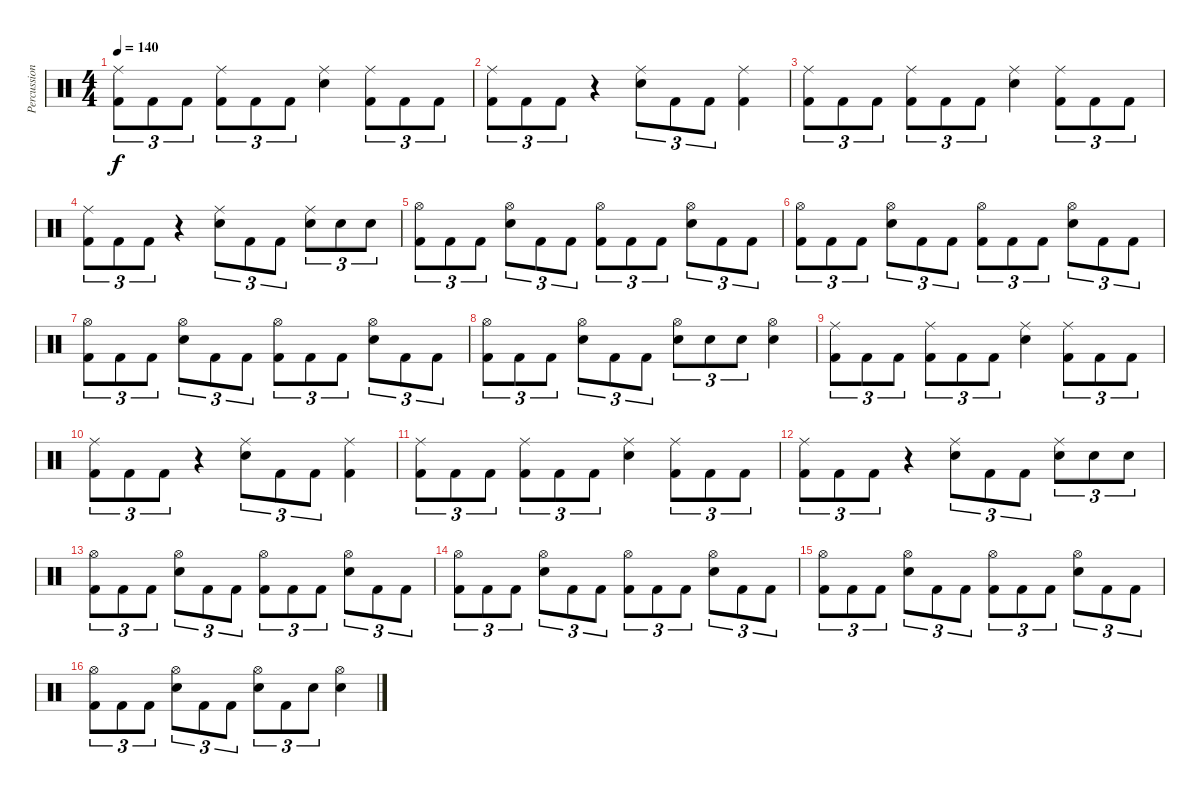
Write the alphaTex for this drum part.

\track ("Percussion" "Percussion") {instrument percussion}
\staff {score}
\articulation defaults
\ts (4 4)
\tempo 140
\clef neutral
\ks c
("Ride (middle)" "Kick (hit) 2").8{tu (3 2) dy f} "Kick (hit) 2".8{tu (3 2)} "Kick (hit) 2".8{tu (3 2)} ("Ride (middle)" "Kick (hit) 2").8{tu (3 2)} "Kick (hit) 2".8{tu (3 2)} "Kick (hit) 2".8{tu (3 2)} ("Ride (middle)" "Electric Snare (hit)").4 ("Ride (middle)" "Kick (hit) 2").8{tu (3 2)} "Kick (hit) 2".8{tu (3 2)} "Kick (hit) 2".8{tu (3 2)} |
("Ride (middle)" "Kick (hit) 2").8{tu (3 2)} "Kick (hit) 2".8{tu (3 2)} "Kick (hit) 2".8{tu (3 2)} r.4 ("Ride (middle)" "Electric Snare (hit)").8{tu (3 2)} "Kick (hit) 2".8{tu (3 2)} "Kick (hit) 2".8{tu (3 2)} ("Ride (middle)" "Kick (hit) 2").4 |
("Ride (middle)" "Kick (hit) 2").8{tu (3 2)} "Kick (hit) 2".8{tu (3 2)} "Kick (hit) 2".8{tu (3 2)} ("Ride (middle)" "Kick (hit) 2").8{tu (3 2)} "Kick (hit) 2".8{tu (3 2)} "Kick (hit) 2".8{tu (3 2)} ("Ride (middle)" "Electric Snare (hit)").4 ("Ride (middle)" "Kick (hit) 2").8{tu (3 2)} "Kick (hit) 2".8{tu (3 2)} "Kick (hit) 2".8{tu (3 2)} |
("Ride (middle)" "Kick (hit) 2").8{tu (3 2)} "Kick (hit) 2".8{tu (3 2)} "Kick (hit) 2".8{tu (3 2)} r.4 ("Ride (middle)" "Electric Snare (hit)").8{tu (3 2)} "Kick (hit) 2".8{tu (3 2)} "Kick (hit) 2".8{tu (3 2)} ("Ride (middle)" "Electric Snare (hit)").8{tu (3 2)} "Electric Snare (hit)".8{tu (3 2)} "Electric Snare (hit)".8{tu (3 2)} |
("Hi-Hat (open)" "Kick (hit) 2").8{tu (3 2)} "Kick (hit) 2".8{tu (3 2)} "Kick (hit) 2".8{tu (3 2)} ("Hi-Hat (open)" "Electric Snare (hit)").8{tu (3 2)} "Kick (hit) 2".8{tu (3 2)} "Kick (hit) 2".8{tu (3 2)} ("Hi-Hat (open)" "Kick (hit) 2").8{tu (3 2)} "Kick (hit) 2".8{tu (3 2)} "Kick (hit) 2".8{tu (3 2)} ("Hi-Hat (open)" "Electric Snare (hit)").8{tu (3 2)} "Kick (hit) 2".8{tu (3 2)} "Kick (hit) 2".8{tu (3 2)} |
("Hi-Hat (open)" "Kick (hit) 2").8{tu (3 2)} "Kick (hit) 2".8{tu (3 2)} "Kick (hit) 2".8{tu (3 2)} ("Hi-Hat (open)" "Electric Snare (hit)").8{tu (3 2)} "Kick (hit) 2".8{tu (3 2)} "Kick (hit) 2".8{tu (3 2)} ("Hi-Hat (open)" "Kick (hit) 2").8{tu (3 2)} "Kick (hit) 2".8{tu (3 2)} "Kick (hit) 2".8{tu (3 2)} ("Hi-Hat (open)" "Electric Snare (hit)").8{tu (3 2)} "Kick (hit) 2".8{tu (3 2)} "Kick (hit) 2".8{tu (3 2)} |
("Hi-Hat (open)" "Kick (hit) 2").8{tu (3 2)} "Kick (hit) 2".8{tu (3 2)} "Kick (hit) 2".8{tu (3 2)} ("Hi-Hat (open)" "Electric Snare (hit)").8{tu (3 2)} "Kick (hit) 2".8{tu (3 2)} "Kick (hit) 2".8{tu (3 2)} ("Hi-Hat (open)" "Kick (hit) 2").8{tu (3 2)} "Kick (hit) 2".8{tu (3 2)} "Kick (hit) 2".8{tu (3 2)} ("Hi-Hat (open)" "Electric Snare (hit)").8{tu (3 2)} "Kick (hit) 2".8{tu (3 2)} "Kick (hit) 2".8{tu (3 2)} |
("Hi-Hat (open)" "Kick (hit) 2").8{tu (3 2)} "Kick (hit) 2".8{tu (3 2)} "Kick (hit) 2".8{tu (3 2)} ("Hi-Hat (open)" "Electric Snare (hit)").8{tu (3 2)} "Kick (hit) 2".8{tu (3 2)} "Kick (hit) 2".8{tu (3 2)} ("Hi-Hat (open)" "Electric Snare (hit)").8{tu (3 2)} "Electric Snare (hit)".8{tu (3 2)} "Electric Snare (hit)".8{tu (3 2)} ("Hi-Hat (open)" "Electric Snare (hit)").4 |
("Ride (middle)" "Kick (hit) 2").8{tu (3 2)} "Kick (hit) 2".8{tu (3 2)} "Kick (hit) 2".8{tu (3 2)} ("Ride (middle)" "Kick (hit) 2").8{tu (3 2)} "Kick (hit) 2".8{tu (3 2)} "Kick (hit) 2".8{tu (3 2)} ("Ride (middle)" "Electric Snare (hit)").4 ("Ride (middle)" "Kick (hit) 2").8{tu (3 2)} "Kick (hit) 2".8{tu (3 2)} "Kick (hit) 2".8{tu (3 2)} |
("Ride (middle)" "Kick (hit) 2").8{tu (3 2)} "Kick (hit) 2".8{tu (3 2)} "Kick (hit) 2".8{tu (3 2)} r.4 ("Ride (middle)" "Electric Snare (hit)").8{tu (3 2)} "Kick (hit) 2".8{tu (3 2)} "Kick (hit) 2".8{tu (3 2)} ("Ride (middle)" "Kick (hit) 2").4 |
("Ride (middle)" "Kick (hit) 2").8{tu (3 2)} "Kick (hit) 2".8{tu (3 2)} "Kick (hit) 2".8{tu (3 2)} ("Ride (middle)" "Kick (hit) 2").8{tu (3 2)} "Kick (hit) 2".8{tu (3 2)} "Kick (hit) 2".8{tu (3 2)} ("Ride (middle)" "Electric Snare (hit)").4 ("Ride (middle)" "Kick (hit) 2").8{tu (3 2)} "Kick (hit) 2".8{tu (3 2)} "Kick (hit) 2".8{tu (3 2)} |
("Ride (middle)" "Kick (hit) 2").8{tu (3 2)} "Kick (hit) 2".8{tu (3 2)} "Kick (hit) 2".8{tu (3 2)} r.4 ("Ride (middle)" "Electric Snare (hit)").8{tu (3 2)} "Kick (hit) 2".8{tu (3 2)} "Kick (hit) 2".8{tu (3 2)} ("Ride (middle)" "Electric Snare (hit)").8{tu (3 2)} "Electric Snare (hit)".8{tu (3 2)} "Electric Snare (hit)".8{tu (3 2)} |
("Hi-Hat (open)" "Kick (hit) 2").8{tu (3 2)} "Kick (hit) 2".8{tu (3 2)} "Kick (hit) 2".8{tu (3 2)} ("Hi-Hat (open)" "Electric Snare (hit)").8{tu (3 2)} "Kick (hit) 2".8{tu (3 2)} "Kick (hit) 2".8{tu (3 2)} ("Hi-Hat (open)" "Kick (hit) 2").8{tu (3 2)} "Kick (hit) 2".8{tu (3 2)} "Kick (hit) 2".8{tu (3 2)} ("Hi-Hat (open)" "Electric Snare (hit)").8{tu (3 2)} "Kick (hit) 2".8{tu (3 2)} "Kick (hit) 2".8{tu (3 2)} |
("Hi-Hat (open)" "Kick (hit) 2").8{tu (3 2)} "Kick (hit) 2".8{tu (3 2)} "Kick (hit) 2".8{tu (3 2)} ("Hi-Hat (open)" "Electric Snare (hit)").8{tu (3 2)} "Kick (hit) 2".8{tu (3 2)} "Kick (hit) 2".8{tu (3 2)} ("Hi-Hat (open)" "Kick (hit) 2").8{tu (3 2)} "Kick (hit) 2".8{tu (3 2)} "Kick (hit) 2".8{tu (3 2)} ("Hi-Hat (open)" "Electric Snare (hit)").8{tu (3 2)} "Kick (hit) 2".8{tu (3 2)} "Kick (hit) 2".8{tu (3 2)} |
("Hi-Hat (open)" "Kick (hit) 2").8{tu (3 2)} "Kick (hit) 2".8{tu (3 2)} "Kick (hit) 2".8{tu (3 2)} ("Hi-Hat (open)" "Electric Snare (hit)").8{tu (3 2)} "Kick (hit) 2".8{tu (3 2)} "Kick (hit) 2".8{tu (3 2)} ("Hi-Hat (open)" "Kick (hit) 2").8{tu (3 2)} "Kick (hit) 2".8{tu (3 2)} "Kick (hit) 2".8{tu (3 2)} ("Hi-Hat (open)" "Electric Snare (hit)").8{tu (3 2)} "Kick (hit) 2".8{tu (3 2)} "Kick (hit) 2".8{tu (3 2)} |
("Hi-Hat (open)" "Kick (hit) 2").8{tu (3 2)} "Kick (hit) 2".8{tu (3 2)} "Kick (hit) 2".8{tu (3 2)} ("Hi-Hat (open)" "Electric Snare (hit)").8{tu (3 2)} "Kick (hit) 2".8{tu (3 2)} "Kick (hit) 2".8{tu (3 2)} ("Hi-Hat (open)" "Electric Snare (hit)").8{tu (3 2)} "Kick (hit) 2".8{tu (3 2)} "Electric Snare (hit)".8{tu (3 2)} ("Hi-Hat (open)" "Electric Snare (hit)").4
